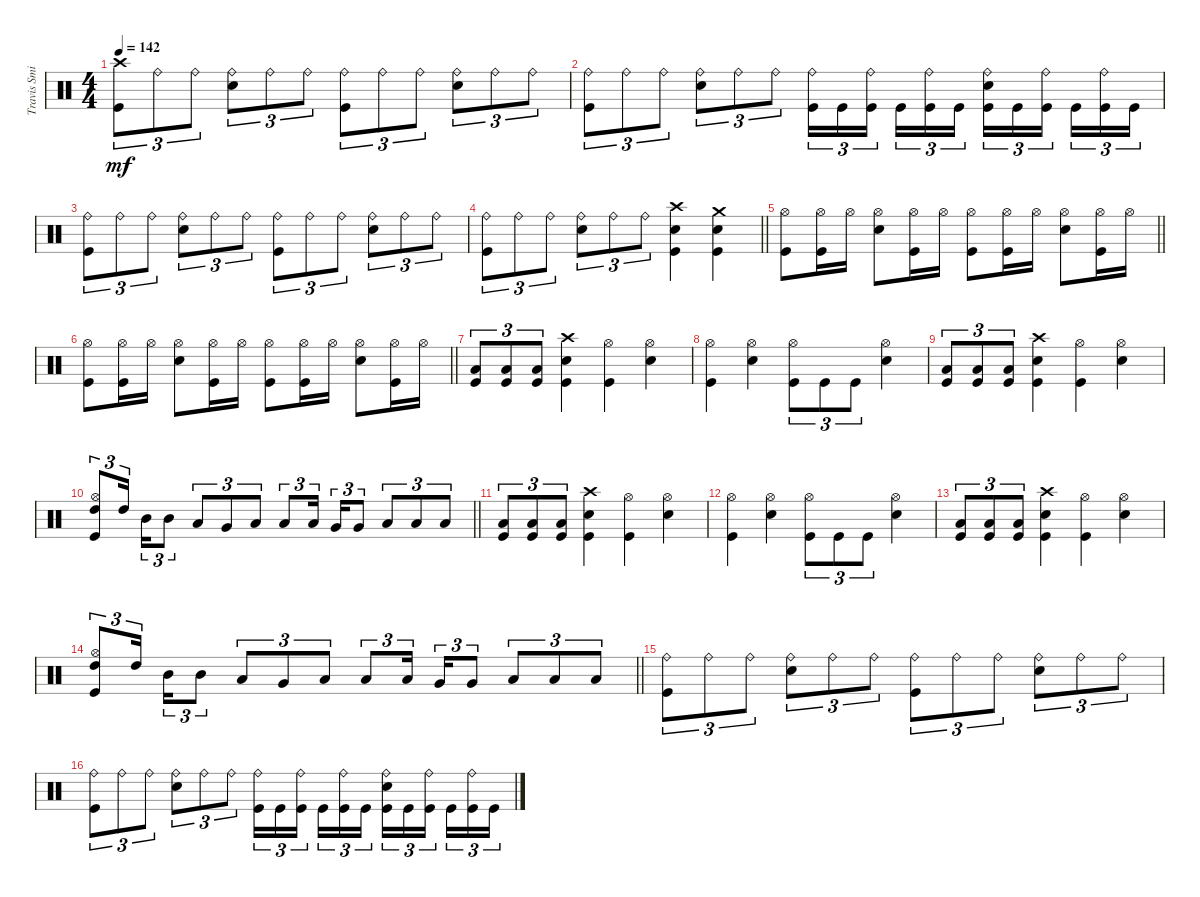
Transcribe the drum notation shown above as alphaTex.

\track ("Travis Smith" "Travis Smi") {instrument percussion}
\staff {score}
\articulation defaults
\ts (4 4)
\tempo 142
\clef neutral
\ks c
("Crash high (hit)" "Kick (hit)").8{tu (3 2) dy mf} "Ride (bell)".8{tu (3 2)} "Ride (bell)".8{tu (3 2)} ("Ride (bell)" "Snare (hit) 2").8{tu (3 2)} "Ride (bell)".8{tu (3 2)} "Ride (bell)".8{tu (3 2)} ("Ride (bell)" "Kick (hit)").8{tu (3 2)} "Ride (bell)".8{tu (3 2)} "Ride (bell)".8{tu (3 2)} ("Ride (bell)" "Snare (hit) 2").8{tu (3 2)} "Ride (bell)".8{tu (3 2)} "Ride (bell)".8{tu (3 2)} |
("Ride (bell)" "Kick (hit)").8{tu (3 2)} "Ride (bell)".8{tu (3 2)} "Ride (bell)".8{tu (3 2)} ("Ride (bell)" "Snare (hit) 2").8{tu (3 2)} "Ride (bell)".8{tu (3 2)} "Ride (bell)".8{tu (3 2)} ("Ride (bell)" "Kick (hit)").16{tu (3 2)} "Kick (hit)".16{tu (3 2)} ("Ride (bell)" "Kick (hit)").16{tu (3 2)} "Kick (hit)".16{tu (3 2)} ("Ride (bell)" "Kick (hit)").16{tu (3 2)} "Kick (hit)".16{tu (3 2)} ("Ride (bell)" "Snare (hit) 2" "Kick (hit)").16{tu (3 2)} "Kick (hit)".16{tu (3 2)} ("Ride (bell)" "Kick (hit)").16{tu (3 2)} "Kick (hit)".16{tu (3 2)} ("Ride (bell)" "Kick (hit)").16{tu (3 2)} "Kick (hit)".16{tu (3 2)} |
("Ride (bell)" "Kick (hit)").8{tu (3 2)} "Ride (bell)".8{tu (3 2)} "Ride (bell)".8{tu (3 2)} ("Ride (bell)" "Snare (hit) 2").8{tu (3 2)} "Ride (bell)".8{tu (3 2)} "Ride (bell)".8{tu (3 2)} ("Ride (bell)" "Kick (hit)").8{tu (3 2)} "Ride (bell)".8{tu (3 2)} "Ride (bell)".8{tu (3 2)} ("Ride (bell)" "Snare (hit) 2").8{tu (3 2)} "Ride (bell)".8{tu (3 2)} "Ride (bell)".8{tu (3 2)} |
\barLineRight lightlight
("Ride (bell)" "Kick (hit)").8{tu (3 2)} "Ride (bell)".8{tu (3 2)} "Ride (bell)".8{tu (3 2)} ("Ride (bell)" "Snare (hit) 2").8{tu (3 2)} "Ride (bell)".8{tu (3 2)} "Ride (bell)".8{tu (3 2)} ("Crash high (hit)" "Snare (hit) 2" "Kick (hit)").4 ("Crash medium (hit)" "Snare (hit) 2" "Kick (hit)").4 |
\section ("" "")
\barLineRight lightlight
("Hi-Hat (open)" "Kick (hit)").8 ("Hi-Hat (open)" "Kick (hit)").16 "Hi-Hat (open)".16 ("Hi-Hat (open)" "Snare (hit) 2").8 ("Hi-Hat (open)" "Kick (hit)").16 "Hi-Hat (open)".16 ("Hi-Hat (open)" "Kick (hit)").8 ("Hi-Hat (open)" "Kick (hit)").16 "Hi-Hat (open)".16 ("Hi-Hat (open)" "Snare (hit) 2").8 ("Hi-Hat (open)" "Kick (hit)").16 "Hi-Hat (open)".16 |
\barLineRight lightlight
("Hi-Hat (open)" "Kick (hit)").8 ("Hi-Hat (open)" "Kick (hit)").16 "Hi-Hat (open)".16 ("Hi-Hat (open)" "Snare (hit) 2").8 ("Hi-Hat (open)" "Kick (hit)").16 "Hi-Hat (open)".16 ("Hi-Hat (open)" "Kick (hit)").8 ("Hi-Hat (open)" "Kick (hit)").16 "Hi-Hat (open)".16 ("Hi-Hat (open)" "Snare (hit) 2").8 ("Hi-Hat (open)" "Kick (hit)").16 "Hi-Hat (open)".16 |
\section ("" "")
("Low Tom (hit)" "Kick (hit)").8{tu (3 2)} ("Low Tom (hit)" "Kick (hit)").8{tu (3 2)} ("Low Tom (hit)" "Kick (hit)").8{tu (3 2)} ("Crash high (hit)" "Snare (hit) 2" "Kick (hit)").4 ("Hi-Hat (open)" "Kick (hit)").4 ("Hi-Hat (open)" "Snare (hit) 2").4 |
("Hi-Hat (open)" "Kick (hit)").4 ("Hi-Hat (open)" "Snare (hit) 2").4 ("Hi-Hat (open)" "Kick (hit)").8{tu (3 2)} "Kick (hit)".8{tu (3 2)} "Kick (hit)".8{tu (3 2)} ("Hi-Hat (open)" "Snare (hit) 2").4 |
("Low Tom (hit)" "Kick (hit)").8{tu (3 2)} ("Low Tom (hit)" "Kick (hit)").8{tu (3 2)} ("Low Tom (hit)" "Kick (hit)").8{tu (3 2)} ("Crash high (hit)" "Snare (hit) 2" "Kick (hit)").4 ("Hi-Hat (open)" "Kick (hit)").4 ("Hi-Hat (open)" "Snare (hit) 2").4 |
\barLineRight lightlight
("High Tom (hit)" "Hi-Hat (open)" "Kick (hit)").8{tu (3 2)} "High Tom (hit)".16{tu (3 2)} "Mid Tom (hit)".16{tu (3 2)} "Mid Tom (hit)".8{tu (3 2)} "Low Tom (hit)".8{tu (3 2)} "Very Low Tom (hit)".8{tu (3 2)} "Low Floor Tom (hit)".8{tu (3 2)} "Low Tom (hit)".8{tu (3 2)} "Low Tom (hit)".16{tu (3 2)} "Very Low Tom (hit)".16{tu (3 2)} "Very Low Tom (hit)".8{tu (3 2)} "Low Floor Tom (hit)".8{tu (3 2)} "Low Floor Tom (hit)".8{tu (3 2)} "Low Floor Tom (hit)".8{tu (3 2)} |
("Low Tom (hit)" "Kick (hit)").8{tu (3 2)} ("Low Tom (hit)" "Kick (hit)").8{tu (3 2)} ("Low Tom (hit)" "Kick (hit)").8{tu (3 2)} ("Crash high (hit)" "Snare (hit) 2" "Kick (hit)").4 ("Hi-Hat (open)" "Kick (hit)").4 ("Hi-Hat (open)" "Snare (hit) 2").4 |
("Hi-Hat (open)" "Kick (hit)").4 ("Hi-Hat (open)" "Snare (hit) 2").4 ("Hi-Hat (open)" "Kick (hit)").8{tu (3 2)} "Kick (hit)".8{tu (3 2)} "Kick (hit)".8{tu (3 2)} ("Hi-Hat (open)" "Snare (hit) 2").4 |
("Low Tom (hit)" "Kick (hit)").8{tu (3 2)} ("Low Tom (hit)" "Kick (hit)").8{tu (3 2)} ("Low Tom (hit)" "Kick (hit)").8{tu (3 2)} ("Crash high (hit)" "Snare (hit) 2" "Kick (hit)").4 ("Hi-Hat (open)" "Kick (hit)").4 ("Hi-Hat (open)" "Snare (hit) 2").4 |
\barLineRight lightlight
("High Tom (hit)" "Hi-Hat (open)" "Kick (hit)").8{tu (3 2)} "High Tom (hit)".16{tu (3 2)} "Mid Tom (hit)".16{tu (3 2)} "Mid Tom (hit)".8{tu (3 2)} "Low Tom (hit)".8{tu (3 2)} "Very Low Tom (hit)".8{tu (3 2)} "Low Floor Tom (hit)".8{tu (3 2)} "Low Tom (hit)".8{tu (3 2)} "Low Tom (hit)".16{tu (3 2)} "Very Low Tom (hit)".16{tu (3 2)} "Very Low Tom (hit)".8{tu (3 2)} "Low Floor Tom (hit)".8{tu (3 2)} "Low Floor Tom (hit)".8{tu (3 2)} "Low Floor Tom (hit)".8{tu (3 2)} |
\section ("" "")
("Ride (bell)" "Kick (hit)").8{tu (3 2)} "Ride (bell)".8{tu (3 2)} "Ride (bell)".8{tu (3 2)} ("Ride (bell)" "Snare (hit) 2").8{tu (3 2)} "Ride (bell)".8{tu (3 2)} "Ride (bell)".8{tu (3 2)} ("Ride (bell)" "Kick (hit)").8{tu (3 2)} "Ride (bell)".8{tu (3 2)} "Ride (bell)".8{tu (3 2)} ("Ride (bell)" "Snare (hit) 2").8{tu (3 2)} "Ride (bell)".8{tu (3 2)} "Ride (bell)".8{tu (3 2)} |
("Ride (bell)" "Kick (hit)").8{tu (3 2)} "Ride (bell)".8{tu (3 2)} "Ride (bell)".8{tu (3 2)} ("Ride (bell)" "Snare (hit) 2").8{tu (3 2)} "Ride (bell)".8{tu (3 2)} "Ride (bell)".8{tu (3 2)} ("Ride (bell)" "Kick (hit)").16{tu (3 2)} "Kick (hit)".16{tu (3 2)} ("Ride (bell)" "Kick (hit)").16{tu (3 2)} "Kick (hit)".16{tu (3 2)} ("Ride (bell)" "Kick (hit)").16{tu (3 2)} "Kick (hit)".16{tu (3 2)} ("Ride (bell)" "Snare (hit) 2" "Kick (hit)").16{tu (3 2)} "Kick (hit)".16{tu (3 2)} ("Ride (bell)" "Kick (hit)").16{tu (3 2)} "Kick (hit)".16{tu (3 2)} ("Ride (bell)" "Kick (hit)").16{tu (3 2)} "Kick (hit)".16{tu (3 2)}
